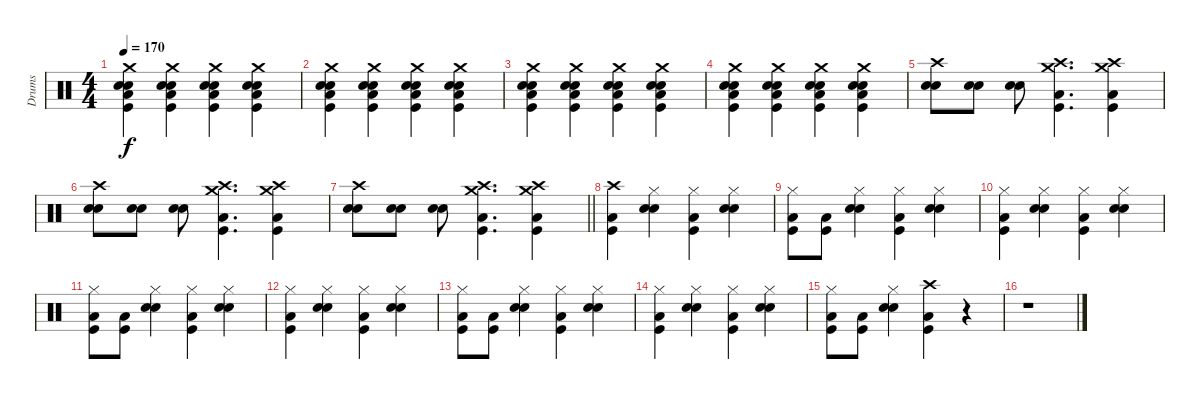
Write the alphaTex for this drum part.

\track ("Drums" "Drums") {instrument percussion}
\staff {score}
\articulation defaults
\ts (4 4)
\tempo 170
\clef neutral
\ks c
("Crash medium (hit)" "Snare (hit) 2" "Electric Snare (hit)" "Kick (hit)" "Low Tom (hit)").4{dy f} ("Crash medium (hit)" "Snare (hit) 2" "Electric Snare (hit)" "Kick (hit)" "Low Tom (hit)").4 ("Crash medium (hit)" "Snare (hit) 2" "Electric Snare (hit)" "Kick (hit)" "Low Tom (hit)").4 ("Crash medium (hit)" "Snare (hit) 2" "Electric Snare (hit)" "Kick (hit)" "Low Tom (hit)").4 |
("Crash medium (hit)" "Snare (hit) 2" "Electric Snare (hit)" "Kick (hit)" "Low Tom (hit)").4 ("Crash medium (hit)" "Snare (hit) 2" "Electric Snare (hit)" "Kick (hit)" "Low Tom (hit)").4 ("Crash medium (hit)" "Snare (hit) 2" "Electric Snare (hit)" "Kick (hit)" "Low Tom (hit)").4 ("Crash medium (hit)" "Snare (hit) 2" "Electric Snare (hit)" "Kick (hit)" "Low Tom (hit)").4 |
("Crash medium (hit)" "Snare (hit) 2" "Electric Snare (hit)" "Kick (hit)" "Low Tom (hit)").4 ("Crash medium (hit)" "Snare (hit) 2" "Electric Snare (hit)" "Kick (hit)" "Low Tom (hit)").4 ("Crash medium (hit)" "Snare (hit) 2" "Electric Snare (hit)" "Kick (hit)" "Low Tom (hit)").4 ("Crash medium (hit)" "Snare (hit) 2" "Electric Snare (hit)" "Kick (hit)" "Low Tom (hit)").4 |
("Crash medium (hit)" "Snare (hit) 2" "Electric Snare (hit)" "Kick (hit)" "Low Tom (hit)").4 ("Crash medium (hit)" "Snare (hit) 2" "Electric Snare (hit)" "Kick (hit)" "Low Tom (hit)").4 ("Crash medium (hit)" "Snare (hit) 2" "Electric Snare (hit)" "Kick (hit)" "Low Tom (hit)").4 ("Crash medium (hit)" "Snare (hit) 2" "Electric Snare (hit)" "Kick (hit)" "Low Tom (hit)").4 |
("Crash high (hit)" "Snare (hit) 2" "Electric Snare (hit)").8 ("Snare (hit) 2" "Electric Snare (hit)").8 ("Snare (hit) 2" "Electric Snare (hit)").8 ("Crash high (hit)" "Crash medium (hit)" "Kick (hit)" "Low Tom (hit)").4{d} ("Crash high (hit)" "Crash medium (hit)" "Kick (hit)" "Low Tom (hit)").4 |
("Crash high (hit)" "Snare (hit) 2" "Electric Snare (hit)").8 ("Snare (hit) 2" "Electric Snare (hit)").8 ("Snare (hit) 2" "Electric Snare (hit)").8 ("Crash high (hit)" "Crash medium (hit)" "Kick (hit)" "Low Tom (hit)").4{d} ("Crash high (hit)" "Crash medium (hit)" "Kick (hit)" "Low Tom (hit)").4 |
\barLineRight lightlight
("Crash high (hit)" "Snare (hit) 2" "Electric Snare (hit)").8 ("Snare (hit) 2" "Electric Snare (hit)").8 ("Snare (hit) 2" "Electric Snare (hit)").8 ("Crash high (hit)" "Crash medium (hit)" "Kick (hit)" "Low Tom (hit)").4{d} ("Crash high (hit)" "Crash medium (hit)" "Kick (hit)" "Low Tom (hit)").4 |
("Crash high (hit)" "Kick (hit)" "Low Tom (hit)").4 ("Hi-Hat (closed)" "Snare (hit) 2" "Electric Snare (hit)").4 ("Hi-Hat (closed)" "Kick (hit)" "Low Tom (hit)").4 ("Hi-Hat (closed)" "Snare (hit) 2" "Electric Snare (hit)").4 |
("Hi-Hat (closed)" "Kick (hit)" "Low Tom (hit)").8 ("Kick (hit)" "Low Tom (hit)").8 ("Hi-Hat (closed)" "Snare (hit) 2" "Electric Snare (hit)").4 ("Hi-Hat (closed)" "Kick (hit)" "Low Tom (hit)").4 ("Hi-Hat (closed)" "Snare (hit) 2" "Electric Snare (hit)").4 |
("Hi-Hat (closed)" "Kick (hit)" "Low Tom (hit)").4 ("Hi-Hat (closed)" "Snare (hit) 2" "Electric Snare (hit)").4 ("Hi-Hat (closed)" "Kick (hit)" "Low Tom (hit)").4 ("Hi-Hat (closed)" "Snare (hit) 2" "Electric Snare (hit)").4 |
("Hi-Hat (closed)" "Kick (hit)" "Low Tom (hit)").8 ("Kick (hit)" "Low Tom (hit)").8 ("Hi-Hat (closed)" "Snare (hit) 2" "Electric Snare (hit)").4 ("Hi-Hat (closed)" "Kick (hit)" "Low Tom (hit)").4 ("Hi-Hat (closed)" "Snare (hit) 2" "Electric Snare (hit)").4 |
("Hi-Hat (closed)" "Kick (hit)" "Low Tom (hit)").4 ("Hi-Hat (closed)" "Snare (hit) 2" "Electric Snare (hit)").4 ("Hi-Hat (closed)" "Kick (hit)" "Low Tom (hit)").4 ("Hi-Hat (closed)" "Snare (hit) 2" "Electric Snare (hit)").4 |
("Hi-Hat (closed)" "Kick (hit)" "Low Tom (hit)").8 ("Kick (hit)" "Low Tom (hit)").8 ("Hi-Hat (closed)" "Snare (hit) 2" "Electric Snare (hit)").4 ("Hi-Hat (closed)" "Kick (hit)" "Low Tom (hit)").4 ("Hi-Hat (closed)" "Snare (hit) 2" "Electric Snare (hit)").4 |
("Hi-Hat (closed)" "Kick (hit)" "Low Tom (hit)").4 ("Hi-Hat (closed)" "Snare (hit) 2" "Electric Snare (hit)").4 ("Hi-Hat (closed)" "Kick (hit)" "Low Tom (hit)").4 ("Hi-Hat (closed)" "Snare (hit) 2" "Electric Snare (hit)").4 |
("Hi-Hat (closed)" "Kick (hit)" "Low Tom (hit)").8 ("Kick (hit)" "Low Tom (hit)").8 ("Hi-Hat (closed)" "Snare (hit) 2" "Electric Snare (hit)").4 ("Crash high (hit)" "Kick (hit)" "Low Tom (hit)").4 r.4 |
r.1
